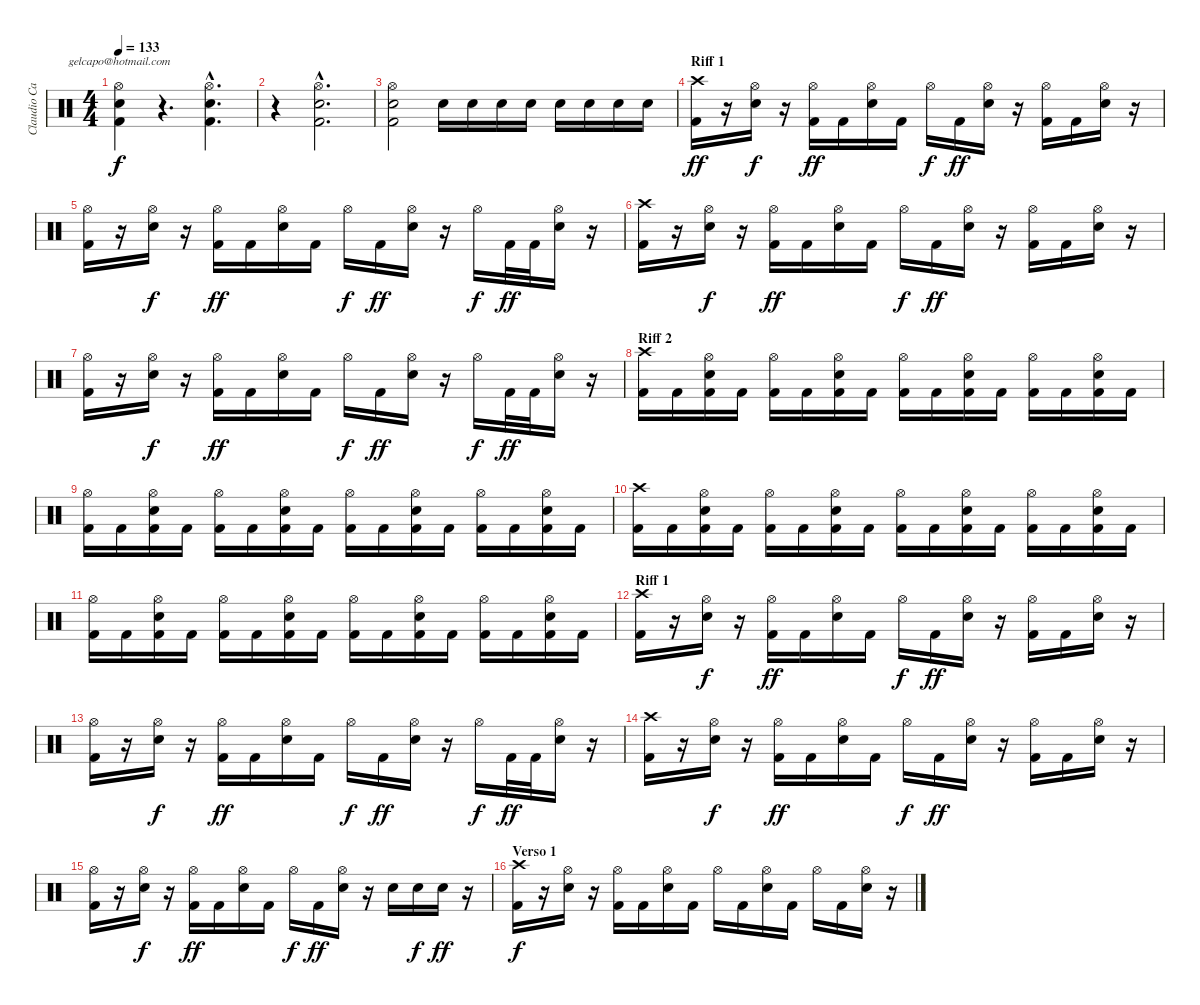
\track ("Claudio Cardaci (bateria)" "Claudio Ca") {instrument percussion}
\staff {score}
\articulation defaults
\chord ("gelcapo@hotmail.com") {firstfret 0}
\ts (4 4)
\tempo 133
\clef neutral
\ks c
("Hi-Hat (open)" "Snare (hit) 2" "Kick (hit) 2").4{ch "gelcapo@hotmail.com" dy f} r.4{d} ("Hi-Hat (open)"{hac} "Snare (hit) 2"{hac} "Kick (hit) 2"{hac}).4{d} |
r.4 ("Hi-Hat (open)"{hac} "Snare (hit) 2"{hac} "Kick (hit) 2"{hac}).2{d} |
("Hi-Hat (open)" "Snare (hit) 2" "Kick (hit) 2").2 "Electric Snare (hit)".16 "Electric Snare (hit)".16 "Electric Snare (hit)".16 "Electric Snare (hit)".16 "Electric Snare (hit)".16 "Electric Snare (hit)".16 "Electric Snare (hit)".16 "Electric Snare (hit)".16 |
\section ("" "Riff 1")
("Crash high (hit)" "Kick (hit) 2").16{dy ff} r.16 ("Hi-Hat (open)" "Snare (hit) 2").16{dy f} r.16 ("Hi-Hat (open)" "Kick (hit) 2").16{dy ff} "Kick (hit) 2".16 ("Hi-Hat (open)" "Snare (hit) 2").16 "Kick (hit) 2".16 "Hi-Hat (open)".16{dy f} "Kick (hit) 2".16{dy ff} ("Hi-Hat (open)" "Snare (hit) 2").16 r.16 ("Hi-Hat (open)" "Kick (hit) 2").16 "Kick (hit) 2".16 ("Hi-Hat (open)" "Snare (hit) 2").16 r.16 |
("Hi-Hat (open)" "Kick (hit) 2").16 r.16 ("Hi-Hat (open)" "Snare (hit) 2").16{dy f} r.16 ("Hi-Hat (open)" "Kick (hit) 2").16{dy ff} "Kick (hit) 2".16 ("Hi-Hat (open)" "Snare (hit) 2").16 "Kick (hit) 2".16 "Hi-Hat (open)".16{dy f} "Kick (hit) 2".16{dy ff} ("Hi-Hat (open)" "Snare (hit) 2").16 r.16 "Hi-Hat (open)".16{dy f} "Kick (hit) 2".32{dy ff} "Kick (hit) 2".32 ("Hi-Hat (open)" "Snare (hit) 2").16 r.16 |
("Crash high (hit)" "Kick (hit) 2").16 r.16 ("Hi-Hat (open)" "Snare (hit) 2").16{dy f} r.16 ("Hi-Hat (open)" "Kick (hit) 2").16{dy ff} "Kick (hit) 2".16 ("Hi-Hat (open)" "Snare (hit) 2").16 "Kick (hit) 2".16 "Hi-Hat (open)".16{dy f} "Kick (hit) 2".16{dy ff} ("Hi-Hat (open)" "Snare (hit) 2").16 r.16 ("Hi-Hat (open)" "Kick (hit) 2").16 "Kick (hit) 2".16 ("Hi-Hat (open)" "Snare (hit) 2").16 r.16 |
("Hi-Hat (open)" "Kick (hit) 2").16 r.16 ("Hi-Hat (open)" "Snare (hit) 2").16{dy f} r.16 ("Hi-Hat (open)" "Kick (hit) 2").16{dy ff} "Kick (hit) 2".16 ("Hi-Hat (open)" "Snare (hit) 2").16 "Kick (hit) 2".16 "Hi-Hat (open)".16{dy f} "Kick (hit) 2".16{dy ff} ("Hi-Hat (open)" "Snare (hit) 2").16 r.16 "Hi-Hat (open)".16{dy f} "Kick (hit) 2".32{dy ff} "Kick (hit) 2".32 ("Hi-Hat (open)" "Snare (hit) 2").16 r.16 |
\section ("" "Riff 2")
("Crash high (hit)" "Kick (hit) 2").16 "Kick (hit) 2".16 ("Hi-Hat (open)" "Snare (hit) 2" "Kick (hit) 2").16 "Kick (hit) 2".16 ("Hi-Hat (open)" "Kick (hit) 2").16 "Kick (hit) 2".16 ("Hi-Hat (open)" "Snare (hit) 2" "Kick (hit) 2").16 "Kick (hit) 2".16 ("Hi-Hat (open)" "Kick (hit) 2").16 "Kick (hit) 2".16 ("Hi-Hat (open)" "Snare (hit) 2" "Kick (hit) 2").16 "Kick (hit) 2".16 ("Hi-Hat (open)" "Kick (hit) 2").16 "Kick (hit) 2".16 ("Hi-Hat (open)" "Snare (hit) 2" "Kick (hit) 2").16 "Kick (hit) 2".16 |
("Hi-Hat (open)" "Kick (hit) 2").16 "Kick (hit) 2".16 ("Hi-Hat (open)" "Snare (hit) 2" "Kick (hit) 2").16 "Kick (hit) 2".16 ("Hi-Hat (open)" "Kick (hit) 2").16 "Kick (hit) 2".16 ("Hi-Hat (open)" "Snare (hit) 2" "Kick (hit) 2").16 "Kick (hit) 2".16 ("Hi-Hat (open)" "Kick (hit) 2").16 "Kick (hit) 2".16 ("Hi-Hat (open)" "Snare (hit) 2" "Kick (hit) 2").16 "Kick (hit) 2".16 ("Hi-Hat (open)" "Kick (hit) 2").16 "Kick (hit) 2".16 ("Hi-Hat (open)" "Snare (hit) 2" "Kick (hit) 2").16 "Kick (hit) 2".16 |
("Crash high (hit)" "Kick (hit) 2").16 "Kick (hit) 2".16 ("Hi-Hat (open)" "Snare (hit) 2" "Kick (hit) 2").16 "Kick (hit) 2".16 ("Hi-Hat (open)" "Kick (hit) 2").16 "Kick (hit) 2".16 ("Hi-Hat (open)" "Snare (hit) 2" "Kick (hit) 2").16 "Kick (hit) 2".16 ("Hi-Hat (open)" "Kick (hit) 2").16 "Kick (hit) 2".16 ("Hi-Hat (open)" "Snare (hit) 2" "Kick (hit) 2").16 "Kick (hit) 2".16 ("Hi-Hat (open)" "Kick (hit) 2").16 "Kick (hit) 2".16 ("Hi-Hat (open)" "Snare (hit) 2" "Kick (hit) 2").16 "Kick (hit) 2".16 |
("Hi-Hat (open)" "Kick (hit) 2").16 "Kick (hit) 2".16 ("Hi-Hat (open)" "Snare (hit) 2" "Kick (hit) 2").16 "Kick (hit) 2".16 ("Hi-Hat (open)" "Kick (hit) 2").16 "Kick (hit) 2".16 ("Hi-Hat (open)" "Snare (hit) 2" "Kick (hit) 2").16 "Kick (hit) 2".16 ("Hi-Hat (open)" "Kick (hit) 2").16 "Kick (hit) 2".16 ("Hi-Hat (open)" "Snare (hit) 2" "Kick (hit) 2").16 "Kick (hit) 2".16 ("Hi-Hat (open)" "Kick (hit) 2").16 "Kick (hit) 2".16 ("Hi-Hat (open)" "Snare (hit) 2" "Kick (hit) 2").16 "Kick (hit) 2".16 |
\section ("" "Riff 1")
("Crash high (hit)" "Kick (hit) 2").16 r.16 ("Hi-Hat (open)" "Snare (hit) 2").16{dy f} r.16 ("Hi-Hat (open)" "Kick (hit) 2").16{dy ff} "Kick (hit) 2".16 ("Hi-Hat (open)" "Snare (hit) 2").16 "Kick (hit) 2".16 "Hi-Hat (open)".16{dy f} "Kick (hit) 2".16{dy ff} ("Hi-Hat (open)" "Snare (hit) 2").16 r.16 ("Hi-Hat (open)" "Kick (hit) 2").16 "Kick (hit) 2".16 ("Hi-Hat (open)" "Snare (hit) 2").16 r.16 |
("Hi-Hat (open)" "Kick (hit) 2").16 r.16 ("Hi-Hat (open)" "Snare (hit) 2").16{dy f} r.16 ("Hi-Hat (open)" "Kick (hit) 2").16{dy ff} "Kick (hit) 2".16 ("Hi-Hat (open)" "Snare (hit) 2").16 "Kick (hit) 2".16 "Hi-Hat (open)".16{dy f} "Kick (hit) 2".16{dy ff} ("Hi-Hat (open)" "Snare (hit) 2").16 r.16 "Hi-Hat (open)".16{dy f} "Kick (hit) 2".32{dy ff} "Kick (hit) 2".32 ("Hi-Hat (open)" "Snare (hit) 2").16 r.16 |
("Crash high (hit)" "Kick (hit) 2").16 r.16 ("Hi-Hat (open)" "Snare (hit) 2").16{dy f} r.16 ("Hi-Hat (open)" "Kick (hit) 2").16{dy ff} "Kick (hit) 2".16 ("Hi-Hat (open)" "Snare (hit) 2").16 "Kick (hit) 2".16 "Hi-Hat (open)".16{dy f} "Kick (hit) 2".16{dy ff} ("Hi-Hat (open)" "Snare (hit) 2").16 r.16 ("Hi-Hat (open)" "Kick (hit) 2").16 "Kick (hit) 2".16 ("Hi-Hat (open)" "Snare (hit) 2").16 r.16 |
("Hi-Hat (open)" "Kick (hit) 2").16 r.16 ("Hi-Hat (open)" "Snare (hit) 2").16{dy f} r.16 ("Hi-Hat (open)" "Kick (hit) 2").16{dy ff} "Kick (hit) 2".16 ("Hi-Hat (open)" "Snare (hit) 2").16 "Kick (hit) 2".16 "Hi-Hat (open)".16{dy f} "Kick (hit) 2".16{dy ff} ("Hi-Hat (open)" "Snare (hit) 2").16 r.16 "Electric Snare (hit)".16 "Electric Snare (hit)".16{dy f} "Electric Snare (hit)".16{dy ff} r.16 |
\section ("" "Verso 1")
("Crash high (hit)" "Kick (hit) 2").16{dy f} r.16 ("Hi-Hat (open)" "Snare (hit) 2").16 r.16 ("Hi-Hat (open)" "Kick (hit) 2").16 "Kick (hit) 2".16 ("Hi-Hat (open)" "Snare (hit) 2").16 "Kick (hit) 2".16 "Hi-Hat (open)".16 "Kick (hit) 2".16 ("Hi-Hat (open)" "Snare (hit) 2").16 "Kick (hit) 2".16 "Hi-Hat (open)".16 "Kick (hit) 2".16 ("Hi-Hat (open)" "Snare (hit) 2").16 r.16
